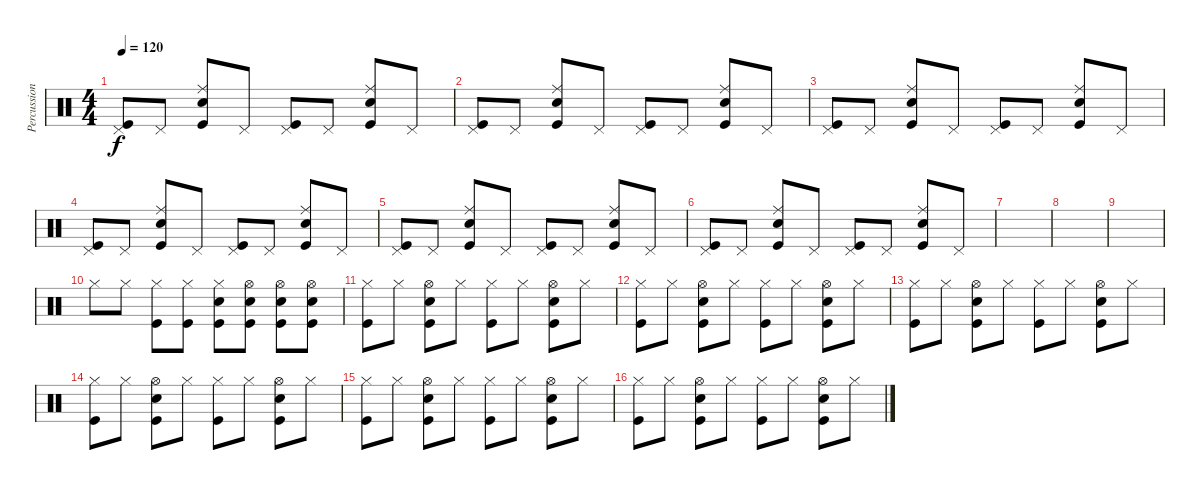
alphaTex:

\track ("Percussions" "Percussion") {instrument percussion}
\staff {score}
\articulation defaults
\ts (4 4)
\tempo 120
\clef neutral
\ks c
("Pedal Hi-Hat (hit)" "Kick (hit)").8{dy f} "Pedal Hi-Hat (hit)".8 ("Snare (hit) 2" "Ride (middle)" "Kick (hit)").8 "Pedal Hi-Hat (hit)".8 ("Pedal Hi-Hat (hit)" "Kick (hit)").8 "Pedal Hi-Hat (hit)".8 ("Snare (hit) 2" "Ride (middle)" "Kick (hit)").8 "Pedal Hi-Hat (hit)".8 |
("Pedal Hi-Hat (hit)" "Kick (hit)").8 "Pedal Hi-Hat (hit)".8 ("Snare (hit) 2" "Ride (middle)" "Kick (hit)").8 "Pedal Hi-Hat (hit)".8 ("Pedal Hi-Hat (hit)" "Kick (hit)").8 "Pedal Hi-Hat (hit)".8 ("Snare (hit) 2" "Ride (middle)" "Kick (hit)").8 "Pedal Hi-Hat (hit)".8 |
("Pedal Hi-Hat (hit)" "Kick (hit)").8 "Pedal Hi-Hat (hit)".8 ("Snare (hit) 2" "Ride (middle)" "Kick (hit)").8 "Pedal Hi-Hat (hit)".8 ("Pedal Hi-Hat (hit)" "Kick (hit)").8 "Pedal Hi-Hat (hit)".8 ("Snare (hit) 2" "Ride (middle)" "Kick (hit)").8 "Pedal Hi-Hat (hit)".8 |
("Pedal Hi-Hat (hit)" "Kick (hit)").8 "Pedal Hi-Hat (hit)".8 ("Snare (hit) 2" "Ride (middle)" "Kick (hit)").8 "Pedal Hi-Hat (hit)".8 ("Pedal Hi-Hat (hit)" "Kick (hit)").8 "Pedal Hi-Hat (hit)".8 ("Snare (hit) 2" "Ride (middle)" "Kick (hit)").8 "Pedal Hi-Hat (hit)".8 |
("Pedal Hi-Hat (hit)" "Kick (hit)").8 "Pedal Hi-Hat (hit)".8 ("Snare (hit) 2" "Ride (middle)" "Kick (hit)").8 "Pedal Hi-Hat (hit)".8 ("Pedal Hi-Hat (hit)" "Kick (hit)").8 "Pedal Hi-Hat (hit)".8 ("Snare (hit) 2" "Ride (middle)" "Kick (hit)").8 "Pedal Hi-Hat (hit)".8 |
("Pedal Hi-Hat (hit)" "Kick (hit)").8 "Pedal Hi-Hat (hit)".8 ("Snare (hit) 2" "Ride (middle)" "Kick (hit)").8 "Pedal Hi-Hat (hit)".8 ("Pedal Hi-Hat (hit)" "Kick (hit)").8 "Pedal Hi-Hat (hit)".8 ("Snare (hit) 2" "Ride (middle)" "Kick (hit)").8 "Pedal Hi-Hat (hit)".8 |
|
|
|
"Hi-Hat (closed)".8 "Hi-Hat (closed)".8 ("Hi-Hat (closed)" "Kick (hit)").8 ("Hi-Hat (closed)" "Kick (hit)").8 ("Snare (hit) 2" "Hi-Hat (closed)" "Kick (hit)").8 ("Snare (hit) 2" "Hi-Hat (open)" "Kick (hit)").8 ("Snare (hit) 2" "Hi-Hat (open)" "Kick (hit)").8 ("Snare (hit) 2" "Hi-Hat (open)" "Kick (hit)").8 |
("Hi-Hat (closed)" "Kick (hit)").8 "Hi-Hat (closed)".8 ("Snare (hit) 2" "Hi-Hat (open)" "Kick (hit)").8 "Hi-Hat (closed)".8 ("Hi-Hat (closed)" "Kick (hit)").8 "Hi-Hat (closed)".8 ("Snare (hit) 2" "Hi-Hat (open)" "Kick (hit)").8 "Hi-Hat (closed)".8 |
("Hi-Hat (closed)" "Kick (hit)").8 "Hi-Hat (closed)".8 ("Snare (hit) 2" "Hi-Hat (open)" "Kick (hit)").8 "Hi-Hat (closed)".8 ("Hi-Hat (closed)" "Kick (hit)").8 "Hi-Hat (closed)".8 ("Snare (hit) 2" "Hi-Hat (open)" "Kick (hit)").8 "Hi-Hat (closed)".8 |
("Hi-Hat (closed)" "Kick (hit)").8 "Hi-Hat (closed)".8 ("Snare (hit) 2" "Hi-Hat (open)" "Kick (hit)").8 "Hi-Hat (closed)".8 ("Hi-Hat (closed)" "Kick (hit)").8 "Hi-Hat (closed)".8 ("Snare (hit) 2" "Hi-Hat (open)" "Kick (hit)").8 "Hi-Hat (closed)".8 |
("Hi-Hat (closed)" "Kick (hit)").8 "Hi-Hat (closed)".8 ("Snare (hit) 2" "Hi-Hat (open)" "Kick (hit)").8 "Hi-Hat (closed)".8 ("Hi-Hat (closed)" "Kick (hit)").8 "Hi-Hat (closed)".8 ("Snare (hit) 2" "Hi-Hat (open)" "Kick (hit)").8 "Hi-Hat (closed)".8 |
("Hi-Hat (closed)" "Kick (hit)").8 "Hi-Hat (closed)".8 ("Snare (hit) 2" "Hi-Hat (open)" "Kick (hit)").8 "Hi-Hat (closed)".8 ("Hi-Hat (closed)" "Kick (hit)").8 "Hi-Hat (closed)".8 ("Snare (hit) 2" "Hi-Hat (open)" "Kick (hit)").8 "Hi-Hat (closed)".8 |
("Hi-Hat (closed)" "Kick (hit)").8 "Hi-Hat (closed)".8 ("Snare (hit) 2" "Hi-Hat (open)" "Kick (hit)").8 "Hi-Hat (closed)".8 ("Hi-Hat (closed)" "Kick (hit)").8 "Hi-Hat (closed)".8 ("Snare (hit) 2" "Hi-Hat (open)" "Kick (hit)").8 "Hi-Hat (closed)".8
